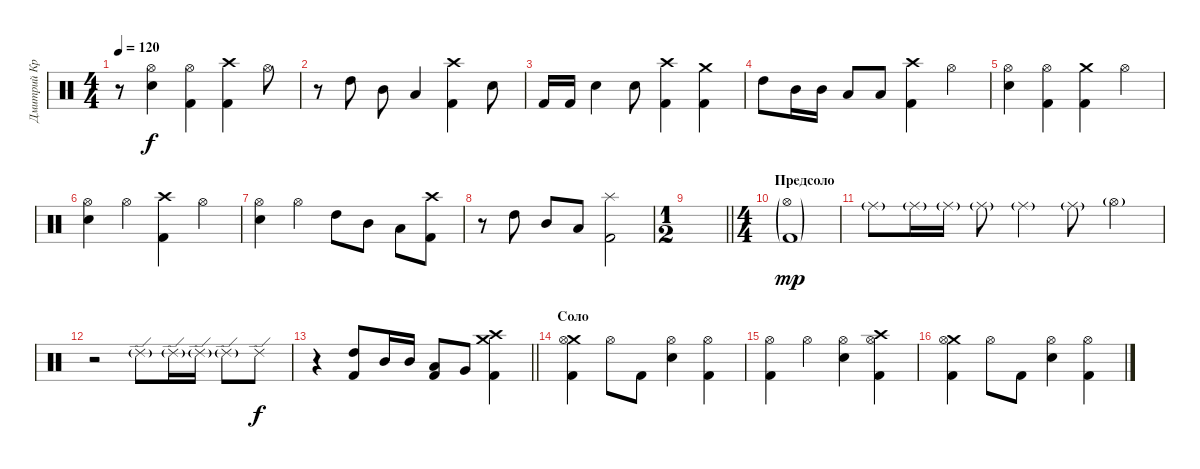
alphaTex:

\track ("Дмитрий Кривенков       (Ударные)" "Дмитрий Кр") {instrument percussion}
\staff {score}
\articulation defaults
\ts (4 4)
\tempo 120
\clef neutral
\ks c
r.8{dy f} ("Hi-Hat (open)" "Electric Snare (hit)").4 ("Hi-Hat (open)" "Kick (hit) 2").4 ("Crash high (hit)" "Kick (hit) 2").4 "Hi-Hat (open)".8 |
r.8 "High Tom (hit)".8 "Mid Tom (hit)".8 "Low Tom (hit)".4 ("Crash high (hit)" "Kick (hit) 2").4 "Electric Snare (hit)".8 |
"Kick (hit) 2".16 "Kick (hit) 2".16 "Electric Snare (hit)".4 "Electric Snare (hit)".8 ("Crash high (hit)" "Kick (hit) 2").4 ("Crash medium (hit)" "Kick (hit) 2").4 |
"High Tom (hit)".8 "Mid Tom (hit)".16 "Mid Tom (hit)".16 "Low Tom (hit)".8 "Low Tom (hit)".8 ("Crash high (hit)" "Kick (hit) 2").4 "Hi-Hat (open)".4 |
("Hi-Hat (open)" "Electric Snare (hit)").4 ("Hi-Hat (open)" "Kick (hit) 2").4 ("Crash medium (hit)" "Kick (hit) 2").4 "Hi-Hat (open)".4 |
("Hi-Hat (open)" "Electric Snare (hit)").4 "Hi-Hat (open)".4 ("Crash high (hit)" "Kick (hit) 2").4 "Hi-Hat (open)".4 |
("Hi-Hat (open)" "Electric Snare (hit)").4 "Hi-Hat (open)".4 "High Tom (hit)".8 "Mid Tom (hit)".8 "Low Tom (hit)".8 ("Crash high (hit)" "Kick (hit) 2").8 |
r.8 "High Tom (hit)".8 "Mid Tom (hit)".8 "Low Tom (hit)".8 ("Splash (hit)" "Kick (hit) 2").2 |
\ts (1 2)
\barLineRight lightlight
|
\ts (4 4)
\section ("" "Предсоло")
("Hi-Hat (open)"{g} "Kick (hit) 2"{g}).1{dy mp} |
"Ride (middle)"{g}.8 "Ride (middle)"{g}.16 "Ride (middle)"{g}.16 "Ride (middle)"{g}.8 "Ride (middle)"{g}.4 "Ride (middle)"{g}.8 "Hi-Hat (open)"{g}.4 |
r.2 "Ride (edge) 2"{g}.8 "Ride (edge) 2"{g}.16 "Ride (edge) 2"{g}.16 "Ride (edge) 2"{g}.8 "Ride (edge) 2".8{dy f} |
\barLineRight lightlight
r.4 ("High Tom (hit)" "Kick (hit) 2").8 "Mid Tom (hit)".16 "Mid Tom (hit)".16 ("Low Tom (hit)" "Kick (hit) 2").8 "Very Low Tom (hit)".8 ("Crash medium (hit)" "Crash high (hit)" "Kick (hit) 2").4 |
\section ("" "Соло")
("Crash medium (hit)" "Hi-Hat (open)" "Kick (hit) 2").4 "Hi-Hat (open)".8 "Kick (hit) 2".8 ("Hi-Hat (open)" "Electric Snare (hit)").4 ("Hi-Hat (open)" "Kick (hit) 2").4 |
("Hi-Hat (open)" "Kick (hit) 2").4 "Hi-Hat (open)".4 ("Hi-Hat (open)" "Electric Snare (hit)").4 ("Crash high (hit)" "Hi-Hat (open)" "Kick (hit) 2").4 |
("Crash medium (hit)" "Hi-Hat (open)" "Kick (hit) 2").4 "Hi-Hat (open)".8 "Kick (hit) 2".8 ("Hi-Hat (open)" "Electric Snare (hit)").4 ("Hi-Hat (open)" "Kick (hit) 2").4
